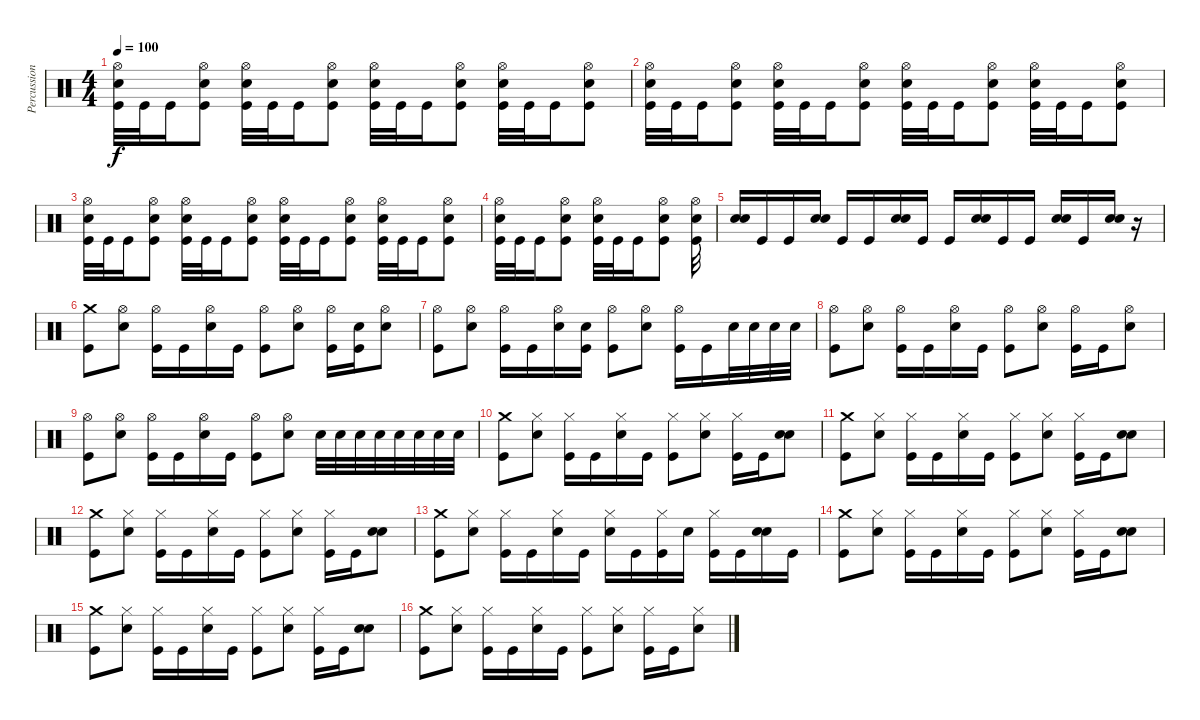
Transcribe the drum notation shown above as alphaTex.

\track ("Percussion" "Percussion") {instrument percussion}
\staff {score}
\articulation defaults
\ts (4 4)
\tempo 100
\clef neutral
\ks c
("Hi-Hat (open)" "Snare (hit) 2" "Kick (hit)").32{dy f} "Kick (hit)".32 "Kick (hit)".16 ("Hi-Hat (open)" "Snare (hit) 2" "Kick (hit)").8 ("Hi-Hat (open)" "Snare (hit) 2" "Kick (hit)").32 "Kick (hit)".32 "Kick (hit)".16 ("Hi-Hat (open)" "Snare (hit) 2" "Kick (hit)").8 ("Hi-Hat (open)" "Snare (hit) 2" "Kick (hit)").32 "Kick (hit)".32 "Kick (hit)".16 ("Hi-Hat (open)" "Snare (hit) 2" "Kick (hit)").8 ("Hi-Hat (open)" "Snare (hit) 2" "Kick (hit)").32 "Kick (hit)".32 "Kick (hit)".16 ("Hi-Hat (open)" "Snare (hit) 2" "Kick (hit)").8 |
("Hi-Hat (open)" "Snare (hit) 2" "Kick (hit)").32 "Kick (hit)".32 "Kick (hit)".16 ("Hi-Hat (open)" "Snare (hit) 2" "Kick (hit)").8 ("Hi-Hat (open)" "Snare (hit) 2" "Kick (hit)").32 "Kick (hit)".32 "Kick (hit)".16 ("Hi-Hat (open)" "Snare (hit) 2" "Kick (hit)").8 ("Hi-Hat (open)" "Snare (hit) 2" "Kick (hit)").32 "Kick (hit)".32 "Kick (hit)".16 ("Hi-Hat (open)" "Snare (hit) 2" "Kick (hit)").8 ("Hi-Hat (open)" "Snare (hit) 2" "Kick (hit)").32 "Kick (hit)".32 "Kick (hit)".16 ("Hi-Hat (open)" "Snare (hit) 2" "Kick (hit)").8 |
("Hi-Hat (open)" "Snare (hit) 2" "Kick (hit)").32 "Kick (hit)".32 "Kick (hit)".16 ("Hi-Hat (open)" "Snare (hit) 2" "Kick (hit)").8 ("Hi-Hat (open)" "Snare (hit) 2" "Kick (hit)").32 "Kick (hit)".32 "Kick (hit)".16 ("Hi-Hat (open)" "Snare (hit) 2" "Kick (hit)").8 ("Hi-Hat (open)" "Snare (hit) 2" "Kick (hit)").32 "Kick (hit)".32 "Kick (hit)".16 ("Hi-Hat (open)" "Snare (hit) 2" "Kick (hit)").8 ("Hi-Hat (open)" "Snare (hit) 2" "Kick (hit)").32 "Kick (hit)".32 "Kick (hit)".16 ("Hi-Hat (open)" "Snare (hit) 2" "Kick (hit)").8 |
("Hi-Hat (open)" "Snare (hit) 2" "Kick (hit)").32 "Kick (hit)".32 "Kick (hit)".16 ("Hi-Hat (open)" "Snare (hit) 2" "Kick (hit)").8 ("Hi-Hat (open)" "Snare (hit) 2" "Kick (hit)").32 "Kick (hit)".32 "Kick (hit)".16 ("Hi-Hat (open)" "Snare (hit) 2" "Kick (hit)").8 ("Hi-Hat (open)" "Snare (hit) 2" "Kick (hit)").32 |
("Snare (hit) 2" "Snare (hit) 2").16 "Kick (hit)".16 "Kick (hit)".16 ("Snare (hit) 2" "Snare (hit) 2").16 "Kick (hit)".16 "Kick (hit)".16 ("Snare (hit) 2" "Snare (hit) 2").16 "Kick (hit)".16 "Kick (hit)".16 ("Snare (hit) 2" "Snare (hit) 2").16 "Kick (hit)".16 "Kick (hit)".16 ("Snare (hit) 2" "Snare (hit) 2").16 "Kick (hit)".16 ("Snare (hit) 2" "Snare (hit) 2").16 r.16 |
("Crash medium (hit)" "Kick (hit)").8 ("Hi-Hat (open)" "Snare (hit) 2").8 ("Hi-Hat (open)" "Kick (hit)").16 "Kick (hit)".16 ("Hi-Hat (open)" "Snare (hit) 2").16 "Kick (hit)".16 ("Hi-Hat (open)" "Kick (hit)").8 ("Hi-Hat (open)" "Snare (hit) 2").8 ("Hi-Hat (open)" "Kick (hit)").16 ("Snare (hit)" "Kick (hit)").16 ("Hi-Hat (open)" "Snare (hit) 2").8 |
("Hi-Hat (open)" "Kick (hit)").8 ("Hi-Hat (open)" "Snare (hit) 2").8 ("Hi-Hat (open)" "Kick (hit)").16 "Kick (hit)".16 ("Hi-Hat (open)" "Snare (hit) 2").16 ("Snare (hit)" "Kick (hit)").16 ("Hi-Hat (open)" "Kick (hit)").8 ("Hi-Hat (open)" "Snare (hit) 2").8 ("Hi-Hat (open)" "Kick (hit)").16 "Kick (hit)".16 "Snare (hit) 2".32 "Snare (hit) 2".32 "Snare (hit) 2".32 "Snare (hit) 2".32 |
("Hi-Hat (open)" "Kick (hit)").8 ("Hi-Hat (open)" "Snare (hit) 2").8 ("Hi-Hat (open)" "Kick (hit)").16 "Kick (hit)".16 ("Hi-Hat (open)" "Snare (hit) 2").16 "Kick (hit)".16 ("Hi-Hat (open)" "Kick (hit)").8 ("Hi-Hat (open)" "Snare (hit) 2").8 ("Hi-Hat (open)" "Kick (hit)").16 "Kick (hit)".16 ("Hi-Hat (open)" "Snare (hit) 2").8 |
("Hi-Hat (open)" "Kick (hit)").8 ("Hi-Hat (open)" "Snare (hit) 2").8 ("Hi-Hat (open)" "Kick (hit)").16 "Kick (hit)".16 ("Hi-Hat (open)" "Snare (hit) 2").16 "Kick (hit)".16 ("Hi-Hat (open)" "Kick (hit)").8 ("Hi-Hat (open)" "Snare (hit) 2").8 "Snare (hit) 2".32 "Snare (hit) 2".32 "Snare (hit) 2".32 "Snare (hit) 2".32 "Snare (hit) 2".32 "Snare (hit) 2".32 "Snare (hit) 2".32 "Snare (hit) 2".32 |
("Crash medium (hit)" "Kick (hit)").8 ("Hi-Hat (closed)" "Snare (hit) 2").8 ("Hi-Hat (closed)" "Kick (hit)").16 "Kick (hit)".16 ("Hi-Hat (closed)" "Snare (hit) 2").16 "Kick (hit)".16 ("Hi-Hat (closed)" "Kick (hit)").8 ("Hi-Hat (closed)" "Snare (hit) 2").8 ("Hi-Hat (closed)" "Kick (hit)").16 "Kick (hit)".16 ("Snare (hit) 2" "Snare (hit) 2").8 |
("Crash medium (hit)" "Kick (hit)").8 ("Hi-Hat (closed)" "Snare (hit) 2").8 ("Hi-Hat (closed)" "Kick (hit)").16 "Kick (hit)".16 ("Hi-Hat (closed)" "Snare (hit) 2").16 "Kick (hit)".16 ("Hi-Hat (closed)" "Kick (hit)").8 ("Hi-Hat (closed)" "Snare (hit) 2").8 ("Hi-Hat (closed)" "Kick (hit)").16 "Kick (hit)".16 ("Snare (hit) 2" "Snare (hit) 2").8 |
("Crash medium (hit)" "Kick (hit)").8 ("Hi-Hat (closed)" "Snare (hit) 2").8 ("Hi-Hat (closed)" "Kick (hit)").16 "Kick (hit)".16 ("Hi-Hat (closed)" "Snare (hit) 2").16 "Kick (hit)".16 ("Hi-Hat (closed)" "Kick (hit)").8 ("Hi-Hat (closed)" "Snare (hit) 2").8 ("Hi-Hat (closed)" "Kick (hit)").16 "Kick (hit)".16 ("Snare (hit) 2" "Snare (hit) 2").8 |
("Crash medium (hit)" "Kick (hit)").8 ("Hi-Hat (closed)" "Snare (hit) 2").8 ("Hi-Hat (closed)" "Kick (hit)").16 "Kick (hit)".16 ("Hi-Hat (closed)" "Snare (hit) 2").16 "Kick (hit)".16 ("Hi-Hat (closed)" "Snare (hit) 2").16 "Kick (hit)".16 ("Hi-Hat (closed)" "Kick (hit)").16 "Snare (hit) 2".16 ("Hi-Hat (closed)" "Kick (hit)").16 "Kick (hit)".16 ("Snare (hit) 2" "Snare (hit) 2").16 "Kick (hit)".16 |
("Crash medium (hit)" "Kick (hit)").8 ("Hi-Hat (closed)" "Snare (hit) 2").8 ("Hi-Hat (closed)" "Kick (hit)").16 "Kick (hit)".16 ("Hi-Hat (closed)" "Snare (hit) 2").16 "Kick (hit)".16 ("Hi-Hat (closed)" "Kick (hit)").8 ("Hi-Hat (closed)" "Snare (hit) 2").8 ("Hi-Hat (closed)" "Kick (hit)").16 "Kick (hit)".16 ("Snare (hit) 2" "Snare (hit) 2").8 |
("Crash medium (hit)" "Kick (hit)").8 ("Hi-Hat (closed)" "Snare (hit) 2").8 ("Hi-Hat (closed)" "Kick (hit)").16 "Kick (hit)".16 ("Hi-Hat (closed)" "Snare (hit) 2").16 "Kick (hit)".16 ("Hi-Hat (closed)" "Kick (hit)").8 ("Hi-Hat (closed)" "Snare (hit) 2").8 ("Hi-Hat (closed)" "Kick (hit)").16 "Kick (hit)".16 ("Snare (hit) 2" "Snare (hit) 2").8 |
("Crash medium (hit)" "Kick (hit)").8 ("Hi-Hat (closed)" "Snare (hit) 2").8 ("Hi-Hat (closed)" "Kick (hit)").16 "Kick (hit)".16 ("Hi-Hat (closed)" "Snare (hit) 2").16 "Kick (hit)".16 ("Hi-Hat (closed)" "Kick (hit)").8 ("Hi-Hat (closed)" "Snare (hit) 2").8 ("Hi-Hat (closed)" "Kick (hit)").16 "Kick (hit)".16 ("Hi-Hat (closed)" "Snare (hit) 2").8
